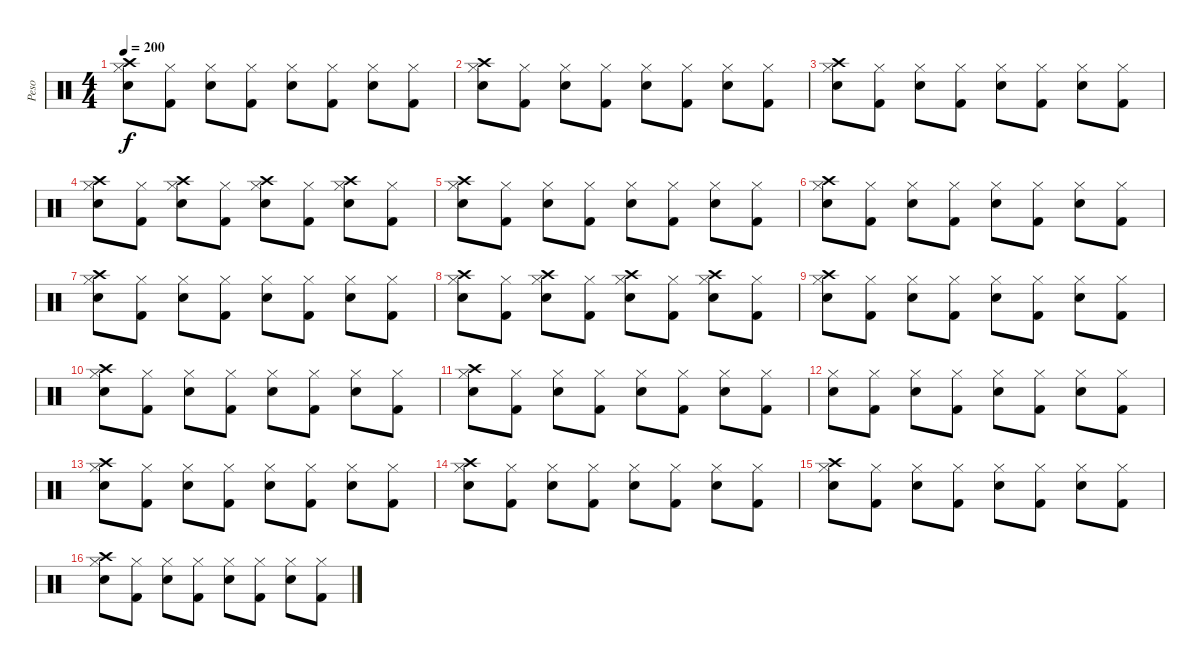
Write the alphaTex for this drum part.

\track ("Peso" "Peso") {instrument percussion}
\staff {score}
\articulation defaults
\ts (4 4)
\tempo 200
\clef neutral
\ks c
("Crash high (hit)" "Hi-Hat (closed)" "Snare (hit) 2").8{dy f} ("Hi-Hat (closed)" "Kick (hit) 2").8 ("Hi-Hat (closed)" "Snare (hit) 2").8 ("Hi-Hat (closed)" "Kick (hit) 2").8 ("Hi-Hat (closed)" "Snare (hit) 2").8 ("Hi-Hat (closed)" "Kick (hit) 2").8 ("Hi-Hat (closed)" "Snare (hit) 2").8 ("Hi-Hat (closed)" "Kick (hit) 2").8 |
("Crash high (hit)" "Hi-Hat (closed)" "Snare (hit) 2").8 ("Hi-Hat (closed)" "Kick (hit) 2").8 ("Hi-Hat (closed)" "Snare (hit) 2").8 ("Hi-Hat (closed)" "Kick (hit) 2").8 ("Hi-Hat (closed)" "Snare (hit) 2").8 ("Hi-Hat (closed)" "Kick (hit) 2").8 ("Hi-Hat (closed)" "Snare (hit) 2").8 ("Hi-Hat (closed)" "Kick (hit) 2").8 |
("Crash high (hit)" "Hi-Hat (closed)" "Snare (hit) 2").8 ("Hi-Hat (closed)" "Kick (hit) 2").8 ("Hi-Hat (closed)" "Snare (hit) 2").8 ("Hi-Hat (closed)" "Kick (hit) 2").8 ("Hi-Hat (closed)" "Snare (hit) 2").8 ("Hi-Hat (closed)" "Kick (hit) 2").8 ("Hi-Hat (closed)" "Snare (hit) 2").8 ("Hi-Hat (closed)" "Kick (hit) 2").8 |
("Crash high (hit)" "Hi-Hat (closed)" "Snare (hit) 2").8 ("Hi-Hat (closed)" "Kick (hit) 2").8 ("Crash high (hit)" "Hi-Hat (closed)" "Snare (hit) 2").8 ("Hi-Hat (closed)" "Kick (hit) 2").8 ("Crash high (hit)" "Hi-Hat (closed)" "Snare (hit) 2").8 ("Hi-Hat (closed)" "Kick (hit) 2").8 ("Crash high (hit)" "Hi-Hat (closed)" "Snare (hit) 2").8 ("Hi-Hat (closed)" "Kick (hit) 2").8 |
("Crash high (hit)" "Hi-Hat (closed)" "Snare (hit) 2").8 ("Hi-Hat (closed)" "Kick (hit) 2").8 ("Hi-Hat (closed)" "Snare (hit) 2").8 ("Hi-Hat (closed)" "Kick (hit) 2").8 ("Hi-Hat (closed)" "Snare (hit) 2").8 ("Hi-Hat (closed)" "Kick (hit) 2").8 ("Hi-Hat (closed)" "Snare (hit) 2").8 ("Hi-Hat (closed)" "Kick (hit) 2").8 |
("Crash high (hit)" "Hi-Hat (closed)" "Snare (hit) 2").8 ("Hi-Hat (closed)" "Kick (hit) 2").8 ("Hi-Hat (closed)" "Snare (hit) 2").8 ("Hi-Hat (closed)" "Kick (hit) 2").8 ("Hi-Hat (closed)" "Snare (hit) 2").8 ("Hi-Hat (closed)" "Kick (hit) 2").8 ("Hi-Hat (closed)" "Snare (hit) 2").8 ("Hi-Hat (closed)" "Kick (hit) 2").8 |
("Crash high (hit)" "Hi-Hat (closed)" "Snare (hit) 2").8 ("Hi-Hat (closed)" "Kick (hit) 2").8 ("Hi-Hat (closed)" "Snare (hit) 2").8 ("Hi-Hat (closed)" "Kick (hit) 2").8 ("Hi-Hat (closed)" "Snare (hit) 2").8 ("Hi-Hat (closed)" "Kick (hit) 2").8 ("Hi-Hat (closed)" "Snare (hit) 2").8 ("Hi-Hat (closed)" "Kick (hit) 2").8 |
("Crash high (hit)" "Hi-Hat (closed)" "Snare (hit) 2").8 ("Hi-Hat (closed)" "Kick (hit) 2").8 ("Crash high (hit)" "Hi-Hat (closed)" "Snare (hit) 2").8 ("Hi-Hat (closed)" "Kick (hit) 2").8 ("Crash high (hit)" "Hi-Hat (closed)" "Snare (hit) 2").8 ("Hi-Hat (closed)" "Kick (hit) 2").8 ("Crash high (hit)" "Hi-Hat (closed)" "Snare (hit) 2").8 ("Hi-Hat (closed)" "Kick (hit) 2").8 |
("Crash high (hit)" "Hi-Hat (closed)" "Snare (hit) 2").8 ("Hi-Hat (closed)" "Kick (hit) 2").8 ("Hi-Hat (closed)" "Snare (hit) 2").8 ("Hi-Hat (closed)" "Kick (hit) 2").8 ("Hi-Hat (closed)" "Snare (hit) 2").8 ("Hi-Hat (closed)" "Kick (hit) 2").8 ("Hi-Hat (closed)" "Snare (hit) 2").8 ("Hi-Hat (closed)" "Kick (hit) 2").8 |
("Crash high (hit)" "Hi-Hat (closed)" "Snare (hit) 2").8 ("Hi-Hat (closed)" "Kick (hit) 2").8 ("Hi-Hat (closed)" "Snare (hit) 2").8 ("Hi-Hat (closed)" "Kick (hit) 2").8 ("Hi-Hat (closed)" "Snare (hit) 2").8 ("Hi-Hat (closed)" "Kick (hit) 2").8 ("Hi-Hat (closed)" "Snare (hit) 2").8 ("Hi-Hat (closed)" "Kick (hit) 2").8 |
("Crash high (hit)" "Hi-Hat (closed)" "Snare (hit) 2").8 ("Hi-Hat (closed)" "Kick (hit) 2").8 ("Hi-Hat (closed)" "Snare (hit) 2").8 ("Hi-Hat (closed)" "Kick (hit) 2").8 ("Hi-Hat (closed)" "Snare (hit) 2").8 ("Hi-Hat (closed)" "Kick (hit) 2").8 ("Hi-Hat (closed)" "Snare (hit) 2").8 ("Hi-Hat (closed)" "Kick (hit) 2").8 |
("Hi-Hat (closed)" "Snare (hit) 2").8 ("Hi-Hat (closed)" "Kick (hit) 2").8 ("Hi-Hat (closed)" "Snare (hit) 2").8 ("Hi-Hat (closed)" "Kick (hit) 2").8 ("Hi-Hat (closed)" "Snare (hit) 2").8 ("Hi-Hat (closed)" "Kick (hit) 2").8 ("Hi-Hat (closed)" "Snare (hit) 2").8 ("Hi-Hat (closed)" "Kick (hit) 2").8 |
("Crash high (hit)" "Hi-Hat (closed)" "Snare (hit) 2").8 ("Hi-Hat (closed)" "Kick (hit) 2").8 ("Hi-Hat (closed)" "Snare (hit) 2").8 ("Hi-Hat (closed)" "Kick (hit) 2").8 ("Hi-Hat (closed)" "Snare (hit) 2").8 ("Hi-Hat (closed)" "Kick (hit) 2").8 ("Hi-Hat (closed)" "Snare (hit) 2").8 ("Hi-Hat (closed)" "Kick (hit) 2").8 |
("Crash high (hit)" "Hi-Hat (closed)" "Snare (hit) 2").8 ("Hi-Hat (closed)" "Kick (hit) 2").8 ("Hi-Hat (closed)" "Snare (hit) 2").8 ("Hi-Hat (closed)" "Kick (hit) 2").8 ("Hi-Hat (closed)" "Snare (hit) 2").8 ("Hi-Hat (closed)" "Kick (hit) 2").8 ("Hi-Hat (closed)" "Snare (hit) 2").8 ("Hi-Hat (closed)" "Kick (hit) 2").8 |
("Crash high (hit)" "Hi-Hat (closed)" "Snare (hit) 2").8 ("Hi-Hat (closed)" "Kick (hit) 2").8 ("Hi-Hat (closed)" "Snare (hit) 2").8 ("Hi-Hat (closed)" "Kick (hit) 2").8 ("Hi-Hat (closed)" "Snare (hit) 2").8 ("Hi-Hat (closed)" "Kick (hit) 2").8 ("Hi-Hat (closed)" "Snare (hit) 2").8 ("Hi-Hat (closed)" "Kick (hit) 2").8 |
("Crash high (hit)" "Hi-Hat (closed)" "Snare (hit) 2").8 ("Hi-Hat (closed)" "Kick (hit) 2").8 ("Hi-Hat (closed)" "Snare (hit) 2").8 ("Hi-Hat (closed)" "Kick (hit) 2").8 ("Hi-Hat (closed)" "Snare (hit) 2").8 ("Hi-Hat (closed)" "Kick (hit) 2").8 ("Hi-Hat (closed)" "Snare (hit) 2").8 ("Hi-Hat (closed)" "Kick (hit) 2").8
